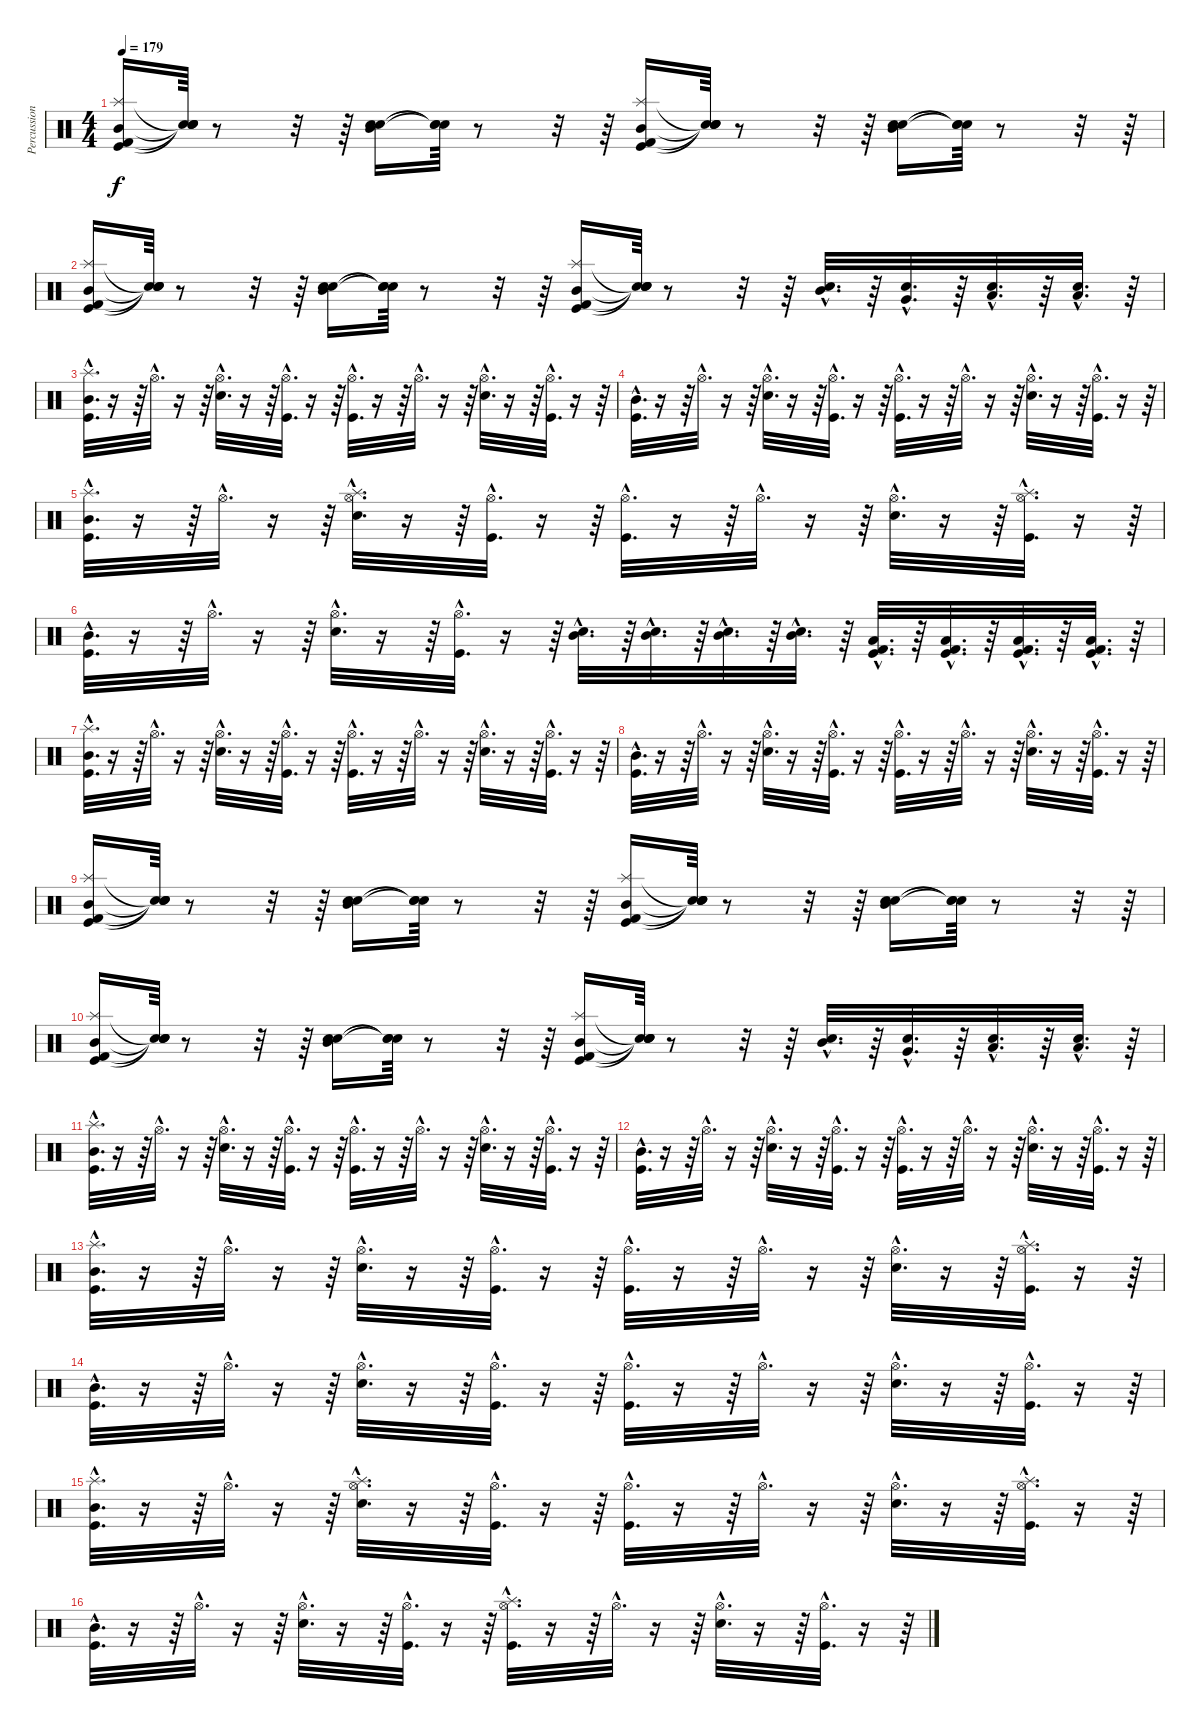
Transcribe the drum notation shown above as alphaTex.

\track ("Percussion" "Percussion") {instrument percussion}
\staff {score}
\articulation defaults
\ts (4 4)
\tempo 179
\clef neutral
\ks c
("Mid Tom (hit)" "Kick (hit)" "Splash (hit)" "Kick (hit) 2").16{dy f} ("Snare (hit)"{t} "Snare (hit)"{t} "Snare (hit)"{t} "Snare (hit)"{t}).64 r.8 r.32 r.64 ("Mid Tom (hit)" "Snare (hit) 2" "Electric Snare (hit)").16 ("Snare (hit)"{t} "Snare (hit)"{t} "Snare (hit)"{t}).64 r.8 r.32 r.64 ("Mid Tom (hit)" "Kick (hit)" "Splash (hit)" "Kick (hit) 2").16 ("Snare (hit)"{t} "Snare (hit)"{t} "Snare (hit)"{t} "Snare (hit)"{t}).64 r.8 r.32 r.64 ("Mid Tom (hit)" "Snare (hit) 2" "Electric Snare (hit)").16 ("Snare (hit)"{t} "Snare (hit)"{t} "Snare (hit)"{t}).64 r.8 r.32 r.64 |
("Mid Tom (hit)" "Kick (hit)" "Splash (hit)" "Kick (hit) 2").16 ("Snare (hit)"{t} "Snare (hit)"{t} "Snare (hit)"{t} "Snare (hit)"{t}).64 r.8 r.32 r.64 ("Mid Tom (hit)" "Snare (hit) 2" "Electric Snare (hit)").16 ("Snare (hit)"{t} "Snare (hit)"{t} "Snare (hit)"{t}).64 r.8 r.32 r.64 ("Mid Tom (hit)" "Kick (hit)" "Splash (hit)" "Kick (hit) 2").16 ("Snare (hit)"{t} "Snare (hit)"{t} "Snare (hit)"{t} "Snare (hit)"{t}).64 r.8 r.32 r.64 ("Electric Snare (hit)"{hac} "Mid Tom (hit)"{hac}).32{d} r.64 ("Electric Snare (hit)"{hac} "Very Low Tom (hit)"{hac}).32{d} r.64 ("Electric Snare (hit)"{hac} "Low Tom (hit)"{hac}).32{d} r.64 ("Electric Snare (hit)"{hac} "Low Tom (hit)"{hac}).32{d} r.64 |
("Splash (hit)"{hac} "Mid Tom (hit)"{hac} "Kick (hit)"{hac}).32{d} r.16 r.64 "Hi-Hat (open)"{hac}.32{d} r.16 r.64 ("Hi-Hat (open)"{hac} "Snare (hit) 2"{hac}).32{d} r.16 r.64 ("Hi-Hat (open)"{hac} "Kick (hit)"{hac}).32{d} r.16 r.64 ("Hi-Hat (open)"{hac} "Kick (hit)"{hac}).32{d} r.16 r.64 "Hi-Hat (open)"{hac}.32{d} r.16 r.64 ("Hi-Hat (open)"{hac} "Snare (hit) 2"{hac}).32{d} r.16 r.64 ("Hi-Hat (open)"{hac} "Kick (hit)"{hac}).32{d} r.16 r.64 |
("Mid Tom (hit)"{hac} "Kick (hit)"{hac}).32{d} r.16 r.64 "Hi-Hat (open)"{hac}.32{d} r.16 r.64 ("Hi-Hat (open)"{hac} "Snare (hit) 2"{hac}).32{d} r.16 r.64 ("Hi-Hat (open)"{hac} "Kick (hit)"{hac}).32{d} r.16 r.64 ("Hi-Hat (open)"{hac} "Kick (hit)"{hac}).32{d} r.16 r.64 "Hi-Hat (open)"{hac}.32{d} r.16 r.64 ("Hi-Hat (open)"{hac} "Snare (hit) 2"{hac}).32{d} r.16 r.64 ("Hi-Hat (open)"{hac} "Kick (hit)"{hac}).32{d} r.16 r.64 |
("Splash (hit)"{hac} "Mid Tom (hit)"{hac} "Kick (hit)"{hac}).32{d} r.16 r.64 "Hi-Hat (open)"{hac}.32{d} r.16 r.64 ("Splash (hit)"{hac} "Hi-Hat (open)"{hac} "Snare (hit) 2"{hac}).32{d} r.16 r.64 ("Hi-Hat (open)"{hac} "Kick (hit)"{hac}).32{d} r.16 r.64 ("Hi-Hat (open)"{hac} "Kick (hit)"{hac}).32{d} r.16 r.64 "Hi-Hat (open)"{hac}.32{d} r.16 r.64 ("Hi-Hat (open)"{hac} "Snare (hit) 2"{hac}).32{d} r.16 r.64 ("Splash (hit)"{hac} "Hi-Hat (open)"{hac} "Kick (hit)"{hac}).32{d} r.16 r.64 |
("Mid Tom (hit)"{hac} "Kick (hit)"{hac}).32{d} r.16 r.64 "Hi-Hat (open)"{hac}.32{d} r.16 r.64 ("Hi-Hat (open)"{hac} "Snare (hit) 2"{hac}).32{d} r.16 r.64 ("Hi-Hat (open)"{hac} "Kick (hit)"{hac}).32{d} r.16 r.64 ("Snare (hit) 2"{hac} "Mid Tom (hit)"{hac}).32{d} r.64 ("Snare (hit) 2"{hac} "Mid Tom (hit)"{hac}).32{d} r.64 ("Snare (hit) 2"{hac} "Mid Tom (hit)"{hac}).32{d} r.64 ("Snare (hit) 2"{hac} "Mid Tom (hit)"{hac}).32{d} r.64 ("Kick (hit)"{hac} "Low Floor Tom (hit)"{hac} "Kick (hit) 2"{hac}).32{d} r.64 ("Kick (hit)"{hac} "Low Floor Tom (hit)"{hac} "Kick (hit) 2"{hac}).32{d} r.64 ("Kick (hit)"{hac} "Low Floor Tom (hit)"{hac} "Kick (hit) 2"{hac}).32{d} r.64 ("Kick (hit)"{hac} "Low Floor Tom (hit)"{hac} "Kick (hit) 2"{hac}).32{d} r.64 |
("Splash (hit)"{hac} "Mid Tom (hit)"{hac} "Kick (hit)"{hac}).32{d} r.16 r.64 "Hi-Hat (open)"{hac}.32{d} r.16 r.64 ("Hi-Hat (open)"{hac} "Snare (hit) 2"{hac}).32{d} r.16 r.64 ("Hi-Hat (open)"{hac} "Kick (hit)"{hac}).32{d} r.16 r.64 ("Hi-Hat (open)"{hac} "Kick (hit)"{hac}).32{d} r.16 r.64 "Hi-Hat (open)"{hac}.32{d} r.16 r.64 ("Hi-Hat (open)"{hac} "Snare (hit) 2"{hac}).32{d} r.16 r.64 ("Hi-Hat (open)"{hac} "Kick (hit)"{hac}).32{d} r.16 r.64 |
("Mid Tom (hit)"{hac} "Kick (hit)"{hac}).32{d} r.16 r.64 "Hi-Hat (open)"{hac}.32{d} r.16 r.64 ("Hi-Hat (open)"{hac} "Snare (hit) 2"{hac}).32{d} r.16 r.64 ("Hi-Hat (open)"{hac} "Kick (hit)"{hac}).32{d} r.16 r.64 ("Hi-Hat (open)"{hac} "Kick (hit)"{hac}).32{d} r.16 r.64 "Hi-Hat (open)"{hac}.32{d} r.16 r.64 ("Hi-Hat (open)"{hac} "Snare (hit) 2"{hac}).32{d} r.16 r.64 ("Hi-Hat (open)"{hac} "Kick (hit)"{hac}).32{d} r.16 r.64 |
("Mid Tom (hit)" "Kick (hit)" "Splash (hit)" "Kick (hit) 2").16 ("Snare (hit)"{t} "Snare (hit)"{t} "Snare (hit)"{t} "Snare (hit)"{t}).64 r.8 r.32 r.64 ("Mid Tom (hit)" "Snare (hit) 2" "Electric Snare (hit)").16 ("Snare (hit)"{t} "Snare (hit)"{t} "Snare (hit)"{t}).64 r.8 r.32 r.64 ("Mid Tom (hit)" "Kick (hit)" "Splash (hit)" "Kick (hit) 2").16 ("Snare (hit)"{t} "Snare (hit)"{t} "Snare (hit)"{t} "Snare (hit)"{t}).64 r.8 r.32 r.64 ("Mid Tom (hit)" "Snare (hit) 2" "Electric Snare (hit)").16 ("Snare (hit)"{t} "Snare (hit)"{t} "Snare (hit)"{t}).64 r.8 r.32 r.64 |
("Mid Tom (hit)" "Kick (hit)" "Splash (hit)" "Kick (hit) 2").16 ("Snare (hit)"{t} "Snare (hit)"{t} "Snare (hit)"{t} "Snare (hit)"{t}).64 r.8 r.32 r.64 ("Mid Tom (hit)" "Snare (hit) 2" "Electric Snare (hit)").16 ("Snare (hit)"{t} "Snare (hit)"{t} "Snare (hit)"{t}).64 r.8 r.32 r.64 ("Mid Tom (hit)" "Kick (hit)" "Splash (hit)" "Kick (hit) 2").16 ("Snare (hit)"{t} "Snare (hit)"{t} "Snare (hit)"{t} "Snare (hit)"{t}).64 r.8 r.32 r.64 ("Electric Snare (hit)"{hac} "Mid Tom (hit)"{hac}).32{d} r.64 ("Electric Snare (hit)"{hac} "Very Low Tom (hit)"{hac}).32{d} r.64 ("Electric Snare (hit)"{hac} "Low Tom (hit)"{hac}).32{d} r.64 ("Electric Snare (hit)"{hac} "Low Tom (hit)"{hac}).32{d} r.64 |
("Splash (hit)"{hac} "Mid Tom (hit)"{hac} "Kick (hit)"{hac}).32{d} r.16 r.64 "Hi-Hat (open)"{hac}.32{d} r.16 r.64 ("Hi-Hat (open)"{hac} "Snare (hit) 2"{hac}).32{d} r.16 r.64 ("Hi-Hat (open)"{hac} "Kick (hit)"{hac}).32{d} r.16 r.64 ("Hi-Hat (open)"{hac} "Kick (hit)"{hac}).32{d} r.16 r.64 "Hi-Hat (open)"{hac}.32{d} r.16 r.64 ("Hi-Hat (open)"{hac} "Snare (hit) 2"{hac}).32{d} r.16 r.64 ("Hi-Hat (open)"{hac} "Kick (hit)"{hac}).32{d} r.16 r.64 |
("Mid Tom (hit)"{hac} "Kick (hit)"{hac}).32{d} r.16 r.64 "Hi-Hat (open)"{hac}.32{d} r.16 r.64 ("Hi-Hat (open)"{hac} "Snare (hit) 2"{hac}).32{d} r.16 r.64 ("Hi-Hat (open)"{hac} "Kick (hit)"{hac}).32{d} r.16 r.64 ("Hi-Hat (open)"{hac} "Kick (hit)"{hac}).32{d} r.16 r.64 "Hi-Hat (open)"{hac}.32{d} r.16 r.64 ("Hi-Hat (open)"{hac} "Snare (hit) 2"{hac}).32{d} r.16 r.64 ("Hi-Hat (open)"{hac} "Kick (hit)"{hac}).32{d} r.16 r.64 |
("Splash (hit)"{hac} "Mid Tom (hit)"{hac} "Kick (hit)"{hac}).32{d} r.16 r.64 "Hi-Hat (open)"{hac}.32{d} r.16 r.64 ("Hi-Hat (open)"{hac} "Snare (hit) 2"{hac}).32{d} r.16 r.64 ("Hi-Hat (open)"{hac} "Kick (hit)"{hac}).32{d} r.16 r.64 ("Hi-Hat (open)"{hac} "Kick (hit)"{hac}).32{d} r.16 r.64 "Hi-Hat (open)"{hac}.32{d} r.16 r.64 ("Hi-Hat (open)"{hac} "Snare (hit) 2"{hac}).32{d} r.16 r.64 ("Splash (hit)"{hac} "Hi-Hat (open)"{hac} "Kick (hit)"{hac}).32{d} r.16 r.64 |
("Mid Tom (hit)"{hac} "Kick (hit)"{hac}).32{d} r.16 r.64 "Hi-Hat (open)"{hac}.32{d} r.16 r.64 ("Hi-Hat (open)"{hac} "Snare (hit) 2"{hac}).32{d} r.16 r.64 ("Hi-Hat (open)"{hac} "Kick (hit)"{hac}).32{d} r.16 r.64 ("Hi-Hat (open)"{hac} "Kick (hit)"{hac}).32{d} r.16 r.64 "Hi-Hat (open)"{hac}.32{d} r.16 r.64 ("Hi-Hat (open)"{hac} "Snare (hit) 2"{hac}).32{d} r.16 r.64 ("Hi-Hat (open)"{hac} "Kick (hit)"{hac}).32{d} r.16 r.64 |
("Splash (hit)"{hac} "Mid Tom (hit)"{hac} "Kick (hit)"{hac}).32{d} r.16 r.64 "Hi-Hat (open)"{hac}.32{d} r.16 r.64 ("Splash (hit)"{hac} "Hi-Hat (open)"{hac} "Snare (hit) 2"{hac}).32{d} r.16 r.64 ("Hi-Hat (open)"{hac} "Kick (hit)"{hac}).32{d} r.16 r.64 ("Hi-Hat (open)"{hac} "Kick (hit)"{hac}).32{d} r.16 r.64 "Hi-Hat (open)"{hac}.32{d} r.16 r.64 ("Hi-Hat (open)"{hac} "Snare (hit) 2"{hac}).32{d} r.16 r.64 ("Splash (hit)"{hac} "Hi-Hat (open)"{hac} "Kick (hit)"{hac}).32{d} r.16 r.64 |
("Mid Tom (hit)"{hac} "Kick (hit)"{hac}).32{d} r.16 r.64 "Hi-Hat (open)"{hac}.32{d} r.16 r.64 ("Hi-Hat (open)"{hac} "Snare (hit) 2"{hac}).32{d} r.16 r.64 ("Hi-Hat (open)"{hac} "Kick (hit)"{hac}).32{d} r.16 r.64 ("Splash (hit)"{hac} "Hi-Hat (open)"{hac} "Kick (hit)"{hac}).32{d} r.16 r.64 "Hi-Hat (open)"{hac}.32{d} r.16 r.64 ("Hi-Hat (open)"{hac} "Snare (hit) 2"{hac}).32{d} r.16 r.64 ("Hi-Hat (open)"{hac} "Kick (hit)"{hac}).32{d} r.16 r.64
